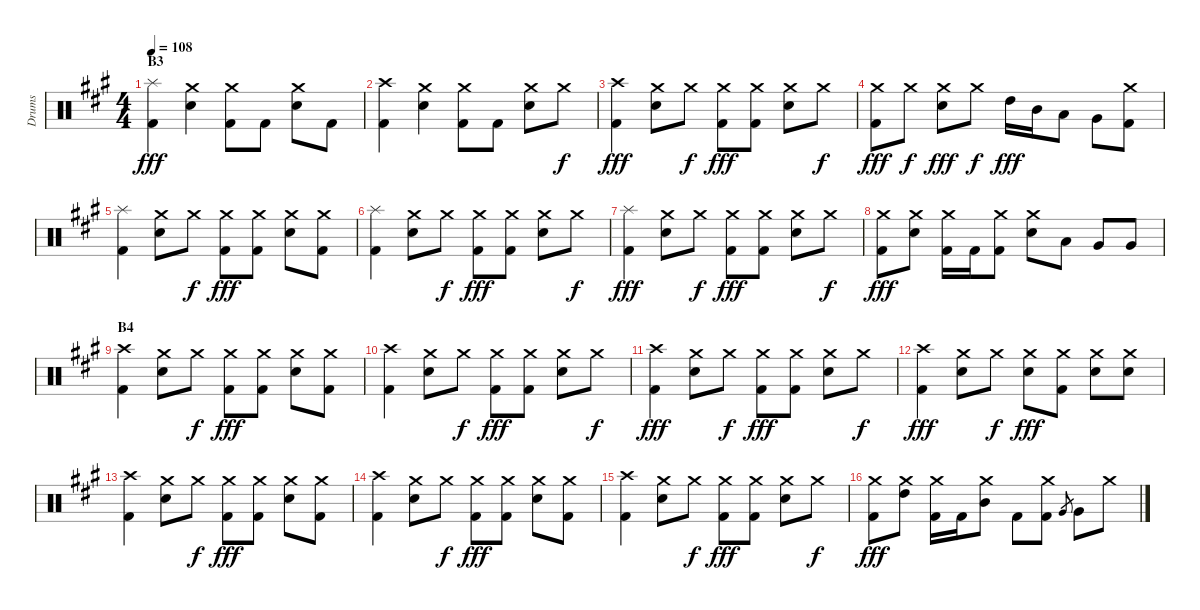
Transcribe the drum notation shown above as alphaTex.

\track ("Drums" "Drums") {instrument percussion}
\staff {score}
\articulation defaults
\ts (4 4)
\section ("" "B3")
\tempo 108
\clef neutral
\ks a
("Splash (hit)" "Kick (hit) 2").4{dy fff} ("Crash medium (hit)" "Electric Snare (hit)").4 ("Crash medium (hit)" "Kick (hit) 2").8 "Kick (hit) 2".8 ("Crash medium (hit)" "Electric Snare (hit)").8 "Kick (hit) 2".8 |
("Crash high (hit)" "Kick (hit) 2").4 ("Crash medium (hit)" "Electric Snare (hit)").4 ("Crash medium (hit)" "Kick (hit) 2").8 "Kick (hit) 2".8 ("Crash medium (hit)" "Electric Snare (hit)").8 "Crash medium (hit)".8{dy f} |
("Crash high (hit)" "Kick (hit) 2").4{dy fff} ("Crash medium (hit)" "Electric Snare (hit)").8 "Crash medium (hit)".8{dy f} ("Crash medium (hit)" "Kick (hit) 2").8{dy fff} ("Crash medium (hit)" "Kick (hit) 2").8 ("Crash medium (hit)" "Electric Snare (hit)").8 "Crash medium (hit)".8{dy f} |
("Crash medium (hit)" "Kick (hit) 2").8{dy fff} "Crash medium (hit)".8{dy f} ("Crash medium (hit)" "Electric Snare (hit)").8{dy fff} "Crash medium (hit)".8{dy f} "High Tom (hit)".16{dy fff} "Mid Tom (hit)".16 "Low Tom (hit)".8 "Very Low Tom (hit)".8 ("Crash medium (hit)" "Kick (hit) 2").8 |
("Splash (hit)" "Kick (hit) 2").4 ("Crash medium (hit)" "Electric Snare (hit)").8 "Crash medium (hit)".8{dy f} ("Crash medium (hit)" "Kick (hit) 2").8{dy fff} ("Crash medium (hit)" "Kick (hit) 2").8 ("Crash medium (hit)" "Electric Snare (hit)").8 ("Crash medium (hit)" "Kick (hit) 2").8 |
("Splash (hit)" "Kick (hit) 2").4 ("Crash medium (hit)" "Electric Snare (hit)").8 "Crash medium (hit)".8{dy f} ("Crash medium (hit)" "Kick (hit) 2").8{dy fff} ("Crash medium (hit)" "Kick (hit) 2").8 ("Crash medium (hit)" "Electric Snare (hit)").8 "Crash medium (hit)".8{dy f} |
("Splash (hit)" "Kick (hit) 2").4{dy fff} ("Crash medium (hit)" "Electric Snare (hit)").8 "Crash medium (hit)".8{dy f} ("Crash medium (hit)" "Kick (hit) 2").8{dy fff} ("Crash medium (hit)" "Kick (hit) 2").8 ("Crash medium (hit)" "Electric Snare (hit)").8 "Crash medium (hit)".8{dy f} |
("Crash medium (hit)" "Kick (hit) 2").8{dy fff} ("Crash medium (hit)" "Electric Snare (hit)").8 ("Crash medium (hit)" "Kick (hit) 2").16 "Kick (hit) 2".16 ("Crash medium (hit)" "Kick (hit) 2").8 ("Crash medium (hit)" "Electric Snare (hit)").8 "Low Tom (hit)".8 "Very Low Tom (hit)".8 "Very Low Tom (hit)".8 |
\section ("" "B4")
("Crash high (hit)" "Kick (hit) 2").4 ("Crash medium (hit)" "Electric Snare (hit)").8 "Crash medium (hit)".8{dy f} ("Crash medium (hit)" "Kick (hit) 2").8{dy fff} ("Crash medium (hit)" "Kick (hit) 2").8 ("Crash medium (hit)" "Electric Snare (hit)").8 ("Crash medium (hit)" "Kick (hit) 2").8 |
("Crash high (hit)" "Kick (hit) 2").4 ("Crash medium (hit)" "Electric Snare (hit)").8 "Crash medium (hit)".8{dy f} ("Crash medium (hit)" "Kick (hit) 2").8{dy fff} ("Crash medium (hit)" "Kick (hit) 2").8 ("Crash medium (hit)" "Electric Snare (hit)").8 "Crash medium (hit)".8{dy f} |
("Crash high (hit)" "Kick (hit) 2").4{dy fff} ("Crash medium (hit)" "Electric Snare (hit)").8 "Crash medium (hit)".8{dy f} ("Crash medium (hit)" "Kick (hit) 2").8{dy fff} ("Crash medium (hit)" "Kick (hit) 2").8 ("Crash medium (hit)" "Electric Snare (hit)").8 "Crash medium (hit)".8{dy f} |
("Crash high (hit)" "Kick (hit) 2").4{dy fff} ("Crash medium (hit)" "Electric Snare (hit)").8 "Crash medium (hit)".8{dy f} ("Crash medium (hit)" "Electric Snare (hit)").8{dy fff} ("Crash medium (hit)" "Kick (hit) 2").8 ("Crash medium (hit)" "Electric Snare (hit)").8 ("Crash medium (hit)" "Electric Snare (hit)").8 |
("Crash high (hit)" "Kick (hit) 2").4 ("Crash medium (hit)" "Electric Snare (hit)").8 "Crash medium (hit)".8{dy f} ("Crash medium (hit)" "Kick (hit) 2").8{dy fff} ("Crash medium (hit)" "Kick (hit) 2").8 ("Crash medium (hit)" "Electric Snare (hit)").8 ("Crash medium (hit)" "Kick (hit) 2").8 |
("Crash high (hit)" "Kick (hit) 2").4 ("Crash medium (hit)" "Electric Snare (hit)").8 "Crash medium (hit)".8{dy f} ("Crash medium (hit)" "Kick (hit) 2").8{dy fff} ("Crash medium (hit)" "Kick (hit) 2").8 ("Crash medium (hit)" "Electric Snare (hit)").8 ("Crash medium (hit)" "Kick (hit) 2").8 |
("Crash high (hit)" "Kick (hit) 2").4 ("Crash medium (hit)" "Electric Snare (hit)").8 "Crash medium (hit)".8{dy f} ("Crash medium (hit)" "Kick (hit) 2").8{dy fff} ("Crash medium (hit)" "Kick (hit) 2").8 ("Crash medium (hit)" "Electric Snare (hit)").8 "Crash medium (hit)".8{dy f} |
("Crash medium (hit)" "Kick (hit) 2").8{dy fff} ("Crash medium (hit)" "High Tom (hit)").8 ("Crash medium (hit)" "Kick (hit) 2").16 "Kick (hit) 2".16 ("Crash medium (hit)" "Mid Tom (hit)").8 "Kick (hit) 2".8 ("Crash medium (hit)" "Kick (hit) 2").8 "Very Low Tom (hit)".8{gr} "Very Low Tom (hit)".8 "Crash medium (hit)".8
